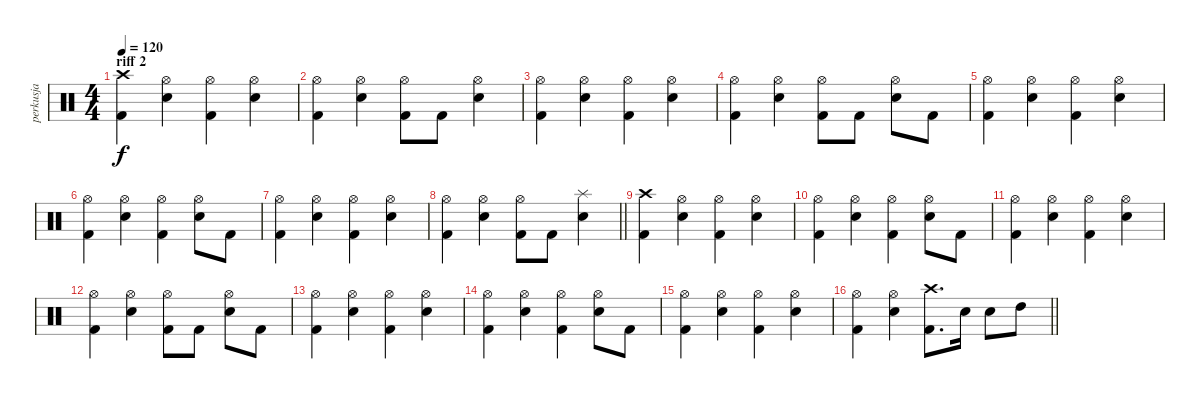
\track ("perkusja" "perkusja") {instrument percussion}
\staff {score}
\articulation defaults
\ts (4 4)
\section ("" "riff 2")
\tempo 120
\clef neutral
\ks c
("Crash high (hit)" "Kick (hit) 2").4{dy f} ("Hi-Hat (open)" "Electric Snare (hit)").4 ("Hi-Hat (open)" "Kick (hit) 2").4 ("Hi-Hat (open)" "Electric Snare (hit)").4 |
("Hi-Hat (open)" "Kick (hit) 2").4 ("Hi-Hat (open)" "Electric Snare (hit)").4 ("Hi-Hat (open)" "Kick (hit) 2").8 "Kick (hit) 2".8 ("Hi-Hat (open)" "Electric Snare (hit)").4 |
("Hi-Hat (open)" "Kick (hit) 2").4 ("Hi-Hat (open)" "Electric Snare (hit)").4 ("Hi-Hat (open)" "Kick (hit) 2").4 ("Hi-Hat (open)" "Electric Snare (hit)").4 |
("Hi-Hat (open)" "Kick (hit) 2").4 ("Hi-Hat (open)" "Electric Snare (hit)").4 ("Hi-Hat (open)" "Kick (hit) 2").8 "Kick (hit) 2".8 ("Hi-Hat (open)" "Electric Snare (hit)").8 "Kick (hit) 2".8 |
("Hi-Hat (open)" "Kick (hit) 2").4 ("Hi-Hat (open)" "Electric Snare (hit)").4 ("Hi-Hat (open)" "Kick (hit) 2").4 ("Hi-Hat (open)" "Electric Snare (hit)").4 |
("Hi-Hat (open)" "Kick (hit) 2").4 ("Hi-Hat (open)" "Electric Snare (hit)").4 ("Hi-Hat (open)" "Kick (hit) 2").4 ("Hi-Hat (open)" "Electric Snare (hit)").8 "Kick (hit) 2".8 |
("Hi-Hat (open)" "Kick (hit) 2").4 ("Hi-Hat (open)" "Electric Snare (hit)").4 ("Hi-Hat (open)" "Kick (hit) 2").4 ("Hi-Hat (open)" "Electric Snare (hit)").4 |
\barLineRight lightlight
("Hi-Hat (open)" "Kick (hit) 2").4 ("Hi-Hat (open)" "Electric Snare (hit)").4 ("Hi-Hat (open)" "Kick (hit) 2").8 "Kick (hit) 2".8 ("Splash (hit)" "Electric Snare (hit)").4 |
("Crash high (hit)" "Kick (hit) 2").4 ("Hi-Hat (open)" "Electric Snare (hit)").4 ("Hi-Hat (open)" "Kick (hit) 2").4 ("Hi-Hat (open)" "Electric Snare (hit)").4 |
("Hi-Hat (open)" "Kick (hit) 2").4 ("Hi-Hat (open)" "Electric Snare (hit)").4 ("Hi-Hat (open)" "Kick (hit) 2").4 ("Hi-Hat (open)" "Electric Snare (hit)").8 "Kick (hit) 2".8 |
("Hi-Hat (open)" "Kick (hit) 2").4 ("Hi-Hat (open)" "Electric Snare (hit)").4 ("Hi-Hat (open)" "Kick (hit) 2").4 ("Hi-Hat (open)" "Electric Snare (hit)").4 |
("Hi-Hat (open)" "Kick (hit) 2").4 ("Hi-Hat (open)" "Electric Snare (hit)").4 ("Hi-Hat (open)" "Kick (hit) 2").8 "Kick (hit) 2".8 ("Hi-Hat (open)" "Electric Snare (hit)").8 "Kick (hit) 2".8 |
("Hi-Hat (open)" "Kick (hit) 2").4 ("Hi-Hat (open)" "Electric Snare (hit)").4 ("Hi-Hat (open)" "Kick (hit) 2").4 ("Hi-Hat (open)" "Electric Snare (hit)").4 |
("Hi-Hat (open)" "Kick (hit) 2").4 ("Hi-Hat (open)" "Electric Snare (hit)").4 ("Hi-Hat (open)" "Kick (hit) 2").4 ("Hi-Hat (open)" "Electric Snare (hit)").8 "Kick (hit) 2".8 |
("Hi-Hat (open)" "Kick (hit) 2").4 ("Hi-Hat (open)" "Electric Snare (hit)").4 ("Hi-Hat (open)" "Kick (hit) 2").4 ("Hi-Hat (open)" "Electric Snare (hit)").4 |
\barLineRight lightlight
("Hi-Hat (open)" "Kick (hit) 2").4 ("Hi-Hat (open)" "Electric Snare (hit)").4 ("Crash high (hit)" "Kick (hit) 2").8{d} "Electric Snare (hit)".16 "Electric Snare (hit)".8 "High Tom (hit)".8
